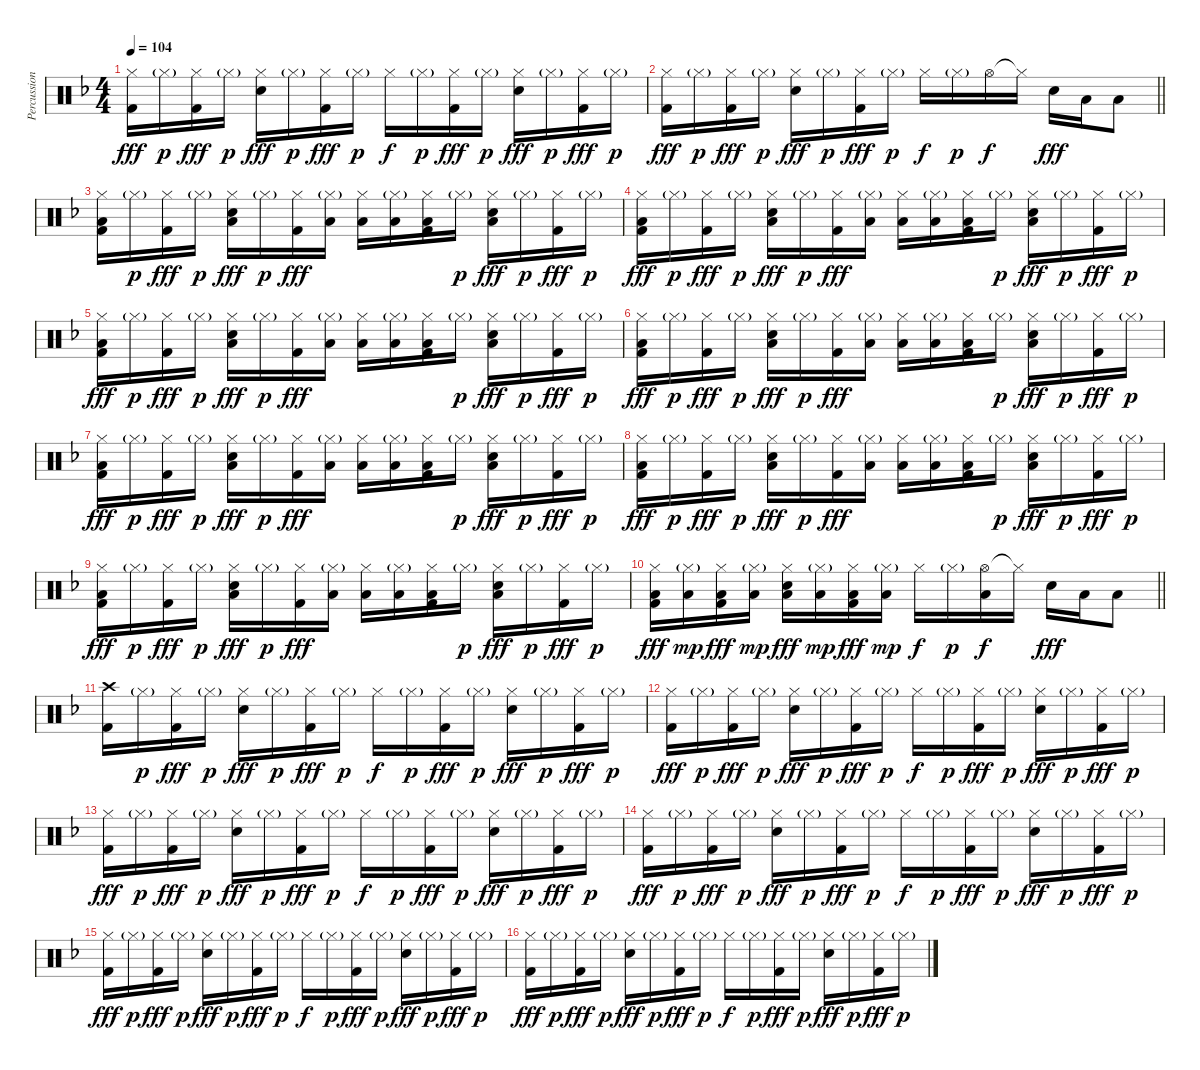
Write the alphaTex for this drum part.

\track ("Percussion" "Percussion") {instrument percussion}
\staff {score}
\articulation defaults
\ts (4 4)
\tempo 104
\clef neutral
\ks dminor
("Hi-Hat (closed)" "Kick (hit) 2").16{dy fff} "Hi-Hat (closed)"{g}.16{dy p} ("Hi-Hat (closed)" "Kick (hit) 2").16{dy fff} "Hi-Hat (closed)"{g}.16{dy p} ("Hi-Hat (closed)" "Snare (hit) 2").16{dy fff} "Hi-Hat (closed)"{g}.16{dy p} ("Hi-Hat (closed)" "Kick (hit) 2").16{dy fff} "Hi-Hat (closed)"{g}.16{dy p} "Hi-Hat (closed)".16{dy f} "Hi-Hat (closed)"{g}.16{dy p} ("Hi-Hat (closed)" "Kick (hit) 2").16{dy fff} "Hi-Hat (closed)"{g}.16{dy p} ("Hi-Hat (closed)" "Snare (hit) 2").16{dy fff} "Hi-Hat (closed)"{g}.16{dy p} ("Hi-Hat (closed)" "Kick (hit) 2").16{dy fff} "Hi-Hat (closed)"{g}.16{dy p} |
\barLineRight lightlight
("Hi-Hat (closed)" "Kick (hit) 2").16{dy fff} "Hi-Hat (closed)"{g}.16{dy p} ("Hi-Hat (closed)" "Kick (hit) 2").16{dy fff} "Hi-Hat (closed)"{g}.16{dy p} ("Hi-Hat (closed)" "Snare (hit) 2").16{dy fff} "Hi-Hat (closed)"{g}.16{dy p} ("Hi-Hat (closed)" "Kick (hit) 2").16{dy fff} "Hi-Hat (closed)"{g}.16{dy p} "Hi-Hat (closed)".16{dy f} "Hi-Hat (closed)"{g}.16{dy p} "Hi-Hat (open)".16{dy f} "Hi-Hat (closed)"{t}.16 "Snare (hit) 2".16{dy fff} "Low Tom (hit)".16 "Low Floor Tom (hit)".8 |
("Hi-Hat (closed)" "Low Floor Tom (hit)" "Kick (hit) 2").16 "Hi-Hat (closed)"{g}.16{dy p} ("Hi-Hat (closed)" "Kick (hit) 2").16{dy fff} "Hi-Hat (closed)"{g}.16{dy p} ("Hi-Hat (closed)" "Low Floor Tom (hit)" "Snare (hit) 2").16{dy fff} "Hi-Hat (closed)"{g}.16{dy p} ("Hi-Hat (closed)" "Kick (hit) 2").16{dy fff} ("Hi-Hat (closed)"{g} "Low Floor Tom (hit)").16 ("Hi-Hat (closed)" "Low Floor Tom (hit)").16 ("Hi-Hat (closed)"{g} "Low Floor Tom (hit)").16 ("Hi-Hat (closed)" "Low Floor Tom (hit)" "Kick (hit) 2").16 "Hi-Hat (closed)"{g}.16{dy p} ("Hi-Hat (closed)" "Low Floor Tom (hit)" "Snare (hit) 2").16{dy fff} "Hi-Hat (closed)"{g}.16{dy p} ("Hi-Hat (closed)" "Kick (hit) 2").16{dy fff} "Hi-Hat (closed)"{g}.16{dy p} |
("Hi-Hat (closed)" "Low Floor Tom (hit)" "Kick (hit) 2").16{dy fff} "Hi-Hat (closed)"{g}.16{dy p} ("Hi-Hat (closed)" "Kick (hit) 2").16{dy fff} "Hi-Hat (closed)"{g}.16{dy p} ("Hi-Hat (closed)" "Low Floor Tom (hit)" "Snare (hit) 2").16{dy fff} "Hi-Hat (closed)"{g}.16{dy p} ("Hi-Hat (closed)" "Kick (hit) 2").16{dy fff} ("Hi-Hat (closed)"{g} "Low Floor Tom (hit)").16 ("Hi-Hat (closed)" "Low Floor Tom (hit)").16 ("Hi-Hat (closed)"{g} "Low Floor Tom (hit)").16 ("Hi-Hat (closed)" "Low Floor Tom (hit)" "Kick (hit) 2").16 "Hi-Hat (closed)"{g}.16{dy p} ("Hi-Hat (closed)" "Low Floor Tom (hit)" "Snare (hit) 2").16{dy fff} "Hi-Hat (closed)"{g}.16{dy p} ("Hi-Hat (closed)" "Kick (hit) 2").16{dy fff} "Hi-Hat (closed)"{g}.16{dy p} |
("Hi-Hat (closed)" "Low Floor Tom (hit)" "Kick (hit) 2").16{dy fff} "Hi-Hat (closed)"{g}.16{dy p} ("Hi-Hat (closed)" "Kick (hit) 2").16{dy fff} "Hi-Hat (closed)"{g}.16{dy p} ("Hi-Hat (closed)" "Low Floor Tom (hit)" "Snare (hit) 2").16{dy fff} "Hi-Hat (closed)"{g}.16{dy p} ("Hi-Hat (closed)" "Kick (hit) 2").16{dy fff} ("Hi-Hat (closed)"{g} "Low Floor Tom (hit)").16 ("Hi-Hat (closed)" "Low Floor Tom (hit)").16 ("Hi-Hat (closed)"{g} "Low Floor Tom (hit)").16 ("Hi-Hat (closed)" "Low Floor Tom (hit)" "Kick (hit) 2").16 "Hi-Hat (closed)"{g}.16{dy p} ("Hi-Hat (closed)" "Low Floor Tom (hit)" "Snare (hit) 2").16{dy fff} "Hi-Hat (closed)"{g}.16{dy p} ("Hi-Hat (closed)" "Kick (hit) 2").16{dy fff} "Hi-Hat (closed)"{g}.16{dy p} |
("Hi-Hat (closed)" "Low Floor Tom (hit)" "Kick (hit) 2").16{dy fff} "Hi-Hat (closed)"{g}.16{dy p} ("Hi-Hat (closed)" "Kick (hit) 2").16{dy fff} "Hi-Hat (closed)"{g}.16{dy p} ("Hi-Hat (closed)" "Low Floor Tom (hit)" "Snare (hit) 2").16{dy fff} "Hi-Hat (closed)"{g}.16{dy p} ("Hi-Hat (closed)" "Kick (hit) 2").16{dy fff} ("Hi-Hat (closed)"{g} "Low Floor Tom (hit)").16 ("Hi-Hat (closed)" "Low Floor Tom (hit)").16 ("Hi-Hat (closed)"{g} "Low Floor Tom (hit)").16 ("Hi-Hat (closed)" "Low Floor Tom (hit)" "Kick (hit) 2").16 "Hi-Hat (closed)"{g}.16{dy p} ("Hi-Hat (closed)" "Low Floor Tom (hit)" "Snare (hit) 2").16{dy fff} "Hi-Hat (closed)"{g}.16{dy p} ("Hi-Hat (closed)" "Kick (hit) 2").16{dy fff} "Hi-Hat (closed)"{g}.16{dy p} |
("Hi-Hat (closed)" "Low Floor Tom (hit)" "Kick (hit) 2").16{dy fff} "Hi-Hat (closed)"{g}.16{dy p} ("Hi-Hat (closed)" "Kick (hit) 2").16{dy fff} "Hi-Hat (closed)"{g}.16{dy p} ("Hi-Hat (closed)" "Low Floor Tom (hit)" "Snare (hit) 2").16{dy fff} "Hi-Hat (closed)"{g}.16{dy p} ("Hi-Hat (closed)" "Kick (hit) 2").16{dy fff} ("Hi-Hat (closed)"{g} "Low Floor Tom (hit)").16 ("Hi-Hat (closed)" "Low Floor Tom (hit)").16 ("Hi-Hat (closed)"{g} "Low Floor Tom (hit)").16 ("Hi-Hat (closed)" "Low Floor Tom (hit)" "Kick (hit) 2").16 "Hi-Hat (closed)"{g}.16{dy p} ("Hi-Hat (closed)" "Low Floor Tom (hit)" "Snare (hit) 2").16{dy fff} "Hi-Hat (closed)"{g}.16{dy p} ("Hi-Hat (closed)" "Kick (hit) 2").16{dy fff} "Hi-Hat (closed)"{g}.16{dy p} |
("Hi-Hat (closed)" "Low Floor Tom (hit)" "Kick (hit) 2").16{dy fff} "Hi-Hat (closed)"{g}.16{dy p} ("Hi-Hat (closed)" "Kick (hit) 2").16{dy fff} "Hi-Hat (closed)"{g}.16{dy p} ("Hi-Hat (closed)" "Low Floor Tom (hit)" "Snare (hit) 2").16{dy fff} "Hi-Hat (closed)"{g}.16{dy p} ("Hi-Hat (closed)" "Kick (hit) 2").16{dy fff} ("Hi-Hat (closed)"{g} "Low Floor Tom (hit)").16 ("Hi-Hat (closed)" "Low Floor Tom (hit)").16 ("Hi-Hat (closed)"{g} "Low Floor Tom (hit)").16 ("Hi-Hat (closed)" "Low Floor Tom (hit)" "Kick (hit) 2").16 "Hi-Hat (closed)"{g}.16{dy p} ("Hi-Hat (closed)" "Low Floor Tom (hit)" "Snare (hit) 2").16{dy fff} "Hi-Hat (closed)"{g}.16{dy p} ("Hi-Hat (closed)" "Kick (hit) 2").16{dy fff} "Hi-Hat (closed)"{g}.16{dy p} |
("Hi-Hat (closed)" "Low Floor Tom (hit)" "Kick (hit) 2").16{dy fff} "Hi-Hat (closed)"{g}.16{dy p} ("Hi-Hat (closed)" "Kick (hit) 2").16{dy fff} "Hi-Hat (closed)"{g}.16{dy p} ("Hi-Hat (closed)" "Low Floor Tom (hit)" "Snare (hit) 2").16{dy fff} "Hi-Hat (closed)"{g}.16{dy p} ("Hi-Hat (closed)" "Kick (hit) 2").16{dy fff} ("Hi-Hat (closed)"{g} "Low Floor Tom (hit)").16 ("Hi-Hat (closed)" "Low Floor Tom (hit)").16 ("Hi-Hat (closed)"{g} "Low Floor Tom (hit)").16 ("Hi-Hat (closed)" "Low Floor Tom (hit)" "Kick (hit) 2").16 "Hi-Hat (closed)"{g}.16{dy p} ("Hi-Hat (closed)" "Low Floor Tom (hit)" "Snare (hit) 2").16{dy fff} "Hi-Hat (closed)"{g}.16{dy p} ("Hi-Hat (closed)" "Kick (hit) 2").16{dy fff} "Hi-Hat (closed)"{g}.16{dy p} |
\barLineRight lightlight
("Hi-Hat (closed)" "Low Floor Tom (hit)" "Kick (hit) 2").16{dy fff} ("Hi-Hat (closed)"{g} "Low Floor Tom (hit)").16{dy mp} ("Hi-Hat (closed)" "Low Floor Tom (hit)" "Kick (hit) 2").16{dy fff} ("Hi-Hat (closed)"{g} "Low Floor Tom (hit)").16{dy mp} ("Hi-Hat (closed)" "Low Floor Tom (hit)" "Snare (hit) 2").16{dy fff} ("Hi-Hat (closed)"{g} "Low Floor Tom (hit)").16{dy mp} ("Hi-Hat (closed)" "Low Floor Tom (hit)" "Kick (hit) 2").16{dy fff} ("Hi-Hat (closed)"{g} "Low Floor Tom (hit)").16{dy mp} "Hi-Hat (closed)".16{dy f} "Hi-Hat (closed)"{g}.16{dy p} ("Hi-Hat (open)" "Low Floor Tom (hit)").16{dy f} "Hi-Hat (closed)"{t}.16 "Snare (hit) 2".16{dy fff} "Low Tom (hit)".16 "Low Floor Tom (hit)".8 |
("Crash high (hit)" "Kick (hit) 2").16 "Hi-Hat (closed)"{g}.16{dy p} ("Hi-Hat (closed)" "Kick (hit) 2").16{dy fff} "Hi-Hat (closed)"{g}.16{dy p} ("Hi-Hat (closed)" "Snare (hit) 2").16{dy fff} "Hi-Hat (closed)"{g}.16{dy p} ("Hi-Hat (closed)" "Kick (hit) 2").16{dy fff} "Hi-Hat (closed)"{g}.16{dy p} "Hi-Hat (closed)".16{dy f} "Hi-Hat (closed)"{g}.16{dy p} ("Hi-Hat (closed)" "Kick (hit) 2").16{dy fff} "Hi-Hat (closed)"{g}.16{dy p} ("Hi-Hat (closed)" "Snare (hit) 2").16{dy fff} "Hi-Hat (closed)"{g}.16{dy p} ("Hi-Hat (closed)" "Kick (hit) 2").16{dy fff} "Hi-Hat (closed)"{g}.16{dy p} |
("Hi-Hat (closed)" "Kick (hit) 2").16{dy fff} "Hi-Hat (closed)"{g}.16{dy p} ("Hi-Hat (closed)" "Kick (hit) 2").16{dy fff} "Hi-Hat (closed)"{g}.16{dy p} ("Hi-Hat (closed)" "Snare (hit) 2").16{dy fff} "Hi-Hat (closed)"{g}.16{dy p} ("Hi-Hat (closed)" "Kick (hit) 2").16{dy fff} "Hi-Hat (closed)"{g}.16{dy p} "Hi-Hat (closed)".16{dy f} "Hi-Hat (closed)"{g}.16{dy p} ("Hi-Hat (closed)" "Kick (hit) 2").16{dy fff} "Hi-Hat (closed)"{g}.16{dy p} ("Hi-Hat (closed)" "Snare (hit) 2").16{dy fff} "Hi-Hat (closed)"{g}.16{dy p} ("Hi-Hat (closed)" "Kick (hit) 2").16{dy fff} "Hi-Hat (closed)"{g}.16{dy p} |
("Hi-Hat (closed)" "Kick (hit) 2").16{dy fff} "Hi-Hat (closed)"{g}.16{dy p} ("Hi-Hat (closed)" "Kick (hit) 2").16{dy fff} "Hi-Hat (closed)"{g}.16{dy p} ("Hi-Hat (closed)" "Snare (hit) 2").16{dy fff} "Hi-Hat (closed)"{g}.16{dy p} ("Hi-Hat (closed)" "Kick (hit) 2").16{dy fff} "Hi-Hat (closed)"{g}.16{dy p} "Hi-Hat (closed)".16{dy f} "Hi-Hat (closed)"{g}.16{dy p} ("Hi-Hat (closed)" "Kick (hit) 2").16{dy fff} "Hi-Hat (closed)"{g}.16{dy p} ("Hi-Hat (closed)" "Snare (hit) 2").16{dy fff} "Hi-Hat (closed)"{g}.16{dy p} ("Hi-Hat (closed)" "Kick (hit) 2").16{dy fff} "Hi-Hat (closed)"{g}.16{dy p} |
("Hi-Hat (closed)" "Kick (hit) 2").16{dy fff} "Hi-Hat (closed)"{g}.16{dy p} ("Hi-Hat (closed)" "Kick (hit) 2").16{dy fff} "Hi-Hat (closed)"{g}.16{dy p} ("Hi-Hat (closed)" "Snare (hit) 2").16{dy fff} "Hi-Hat (closed)"{g}.16{dy p} ("Hi-Hat (closed)" "Kick (hit) 2").16{dy fff} "Hi-Hat (closed)"{g}.16{dy p} "Hi-Hat (closed)".16{dy f} "Hi-Hat (closed)"{g}.16{dy p} ("Hi-Hat (closed)" "Kick (hit) 2").16{dy fff} "Hi-Hat (closed)"{g}.16{dy p} ("Hi-Hat (closed)" "Snare (hit) 2").16{dy fff} "Hi-Hat (closed)"{g}.16{dy p} ("Hi-Hat (closed)" "Kick (hit) 2").16{dy fff} "Hi-Hat (closed)"{g}.16{dy p} |
("Hi-Hat (closed)" "Kick (hit) 2").16{dy fff} "Hi-Hat (closed)"{g}.16{dy p} ("Hi-Hat (closed)" "Kick (hit) 2").16{dy fff} "Hi-Hat (closed)"{g}.16{dy p} ("Hi-Hat (closed)" "Snare (hit) 2").16{dy fff} "Hi-Hat (closed)"{g}.16{dy p} ("Hi-Hat (closed)" "Kick (hit) 2").16{dy fff} "Hi-Hat (closed)"{g}.16{dy p} "Hi-Hat (closed)".16{dy f} "Hi-Hat (closed)"{g}.16{dy p} ("Hi-Hat (closed)" "Kick (hit) 2").16{dy fff} "Hi-Hat (closed)"{g}.16{dy p} ("Hi-Hat (closed)" "Snare (hit) 2").16{dy fff} "Hi-Hat (closed)"{g}.16{dy p} ("Hi-Hat (closed)" "Kick (hit) 2").16{dy fff} "Hi-Hat (closed)"{g}.16{dy p} |
("Hi-Hat (closed)" "Kick (hit) 2").16{dy fff} "Hi-Hat (closed)"{g}.16{dy p} ("Hi-Hat (closed)" "Kick (hit) 2").16{dy fff} "Hi-Hat (closed)"{g}.16{dy p} ("Hi-Hat (closed)" "Snare (hit) 2").16{dy fff} "Hi-Hat (closed)"{g}.16{dy p} ("Hi-Hat (closed)" "Kick (hit) 2").16{dy fff} "Hi-Hat (closed)"{g}.16{dy p} "Hi-Hat (closed)".16{dy f} "Hi-Hat (closed)"{g}.16{dy p} ("Hi-Hat (closed)" "Kick (hit) 2").16{dy fff} "Hi-Hat (closed)"{g}.16{dy p} ("Hi-Hat (closed)" "Snare (hit) 2").16{dy fff} "Hi-Hat (closed)"{g}.16{dy p} ("Hi-Hat (closed)" "Kick (hit) 2").16{dy fff} "Hi-Hat (closed)"{g}.16{dy p}
